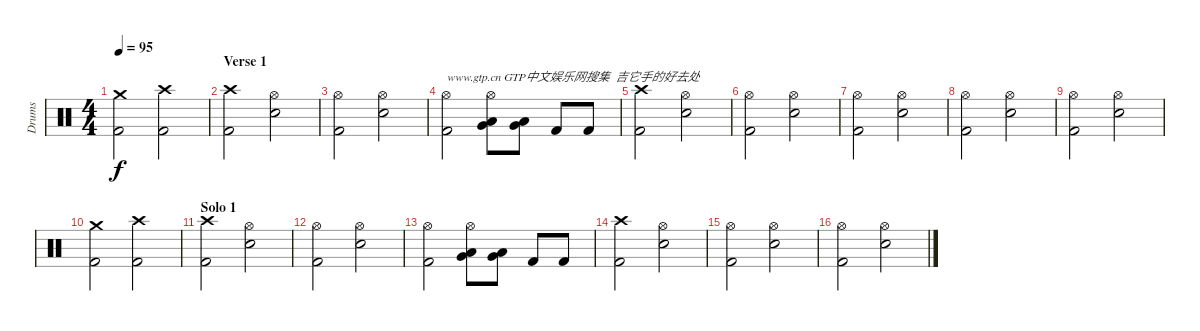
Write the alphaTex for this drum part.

\track ("Drums" "Drums") {instrument percussion}
\staff {score}
\articulation defaults
\ts (4 4)
\tempo 95
\clef neutral
\ks c
("Crash medium (hit)" "Kick (hit) 2").2{dy f} ("Crash high (hit)" "Kick (hit) 2").2 |
\section ("" "Verse 1")
("Crash high (hit)" "Kick (hit) 2").2 ("Hi-Hat (open)" "Electric Snare (hit)").2 |
("Hi-Hat (open)" "Kick (hit) 2").2 ("Hi-Hat (open)" "Electric Snare (hit)").2 |
("Hi-Hat (open)" "Kick (hit) 2").2{txt "www.gtp.cn GTP中文娱乐网搜集  吉它手的好去处"} ("Hi-Hat (open)" "Low Tom (hit)" "Very Low Tom (hit)").8 ("Low Tom (hit)" "Very Low Tom (hit)").8 "Kick (hit) 2".8 "Kick (hit) 2".8 |
("Crash high (hit)" "Kick (hit) 2").2 ("Hi-Hat (open)" "Electric Snare (hit)").2 |
("Hi-Hat (open)" "Kick (hit) 2").2 ("Hi-Hat (open)" "Electric Snare (hit)").2 |
("Hi-Hat (open)" "Kick (hit) 2").2 ("Hi-Hat (open)" "Electric Snare (hit)").2 |
("Hi-Hat (open)" "Kick (hit) 2").2 ("Hi-Hat (open)" "Electric Snare (hit)").2 |
("Hi-Hat (open)" "Kick (hit) 2").2 ("Hi-Hat (open)" "Electric Snare (hit)").2 |
("Crash medium (hit)" "Kick (hit) 2").2 ("Crash high (hit)" "Kick (hit) 2").2 |
\section ("" "Solo 1")
("Crash high (hit)" "Kick (hit) 2").2 ("Hi-Hat (open)" "Electric Snare (hit)").2 |
("Hi-Hat (open)" "Kick (hit) 2").2 ("Hi-Hat (open)" "Electric Snare (hit)").2 |
("Hi-Hat (open)" "Kick (hit) 2").2 ("Hi-Hat (open)" "Low Tom (hit)" "Very Low Tom (hit)").8 ("Low Tom (hit)" "Very Low Tom (hit)").8 "Kick (hit) 2".8 "Kick (hit) 2".8 |
("Crash high (hit)" "Kick (hit) 2").2 ("Hi-Hat (open)" "Electric Snare (hit)").2 |
("Hi-Hat (open)" "Kick (hit) 2").2 ("Hi-Hat (open)" "Electric Snare (hit)").2 |
("Hi-Hat (open)" "Kick (hit) 2").2 ("Hi-Hat (open)" "Electric Snare (hit)").2
